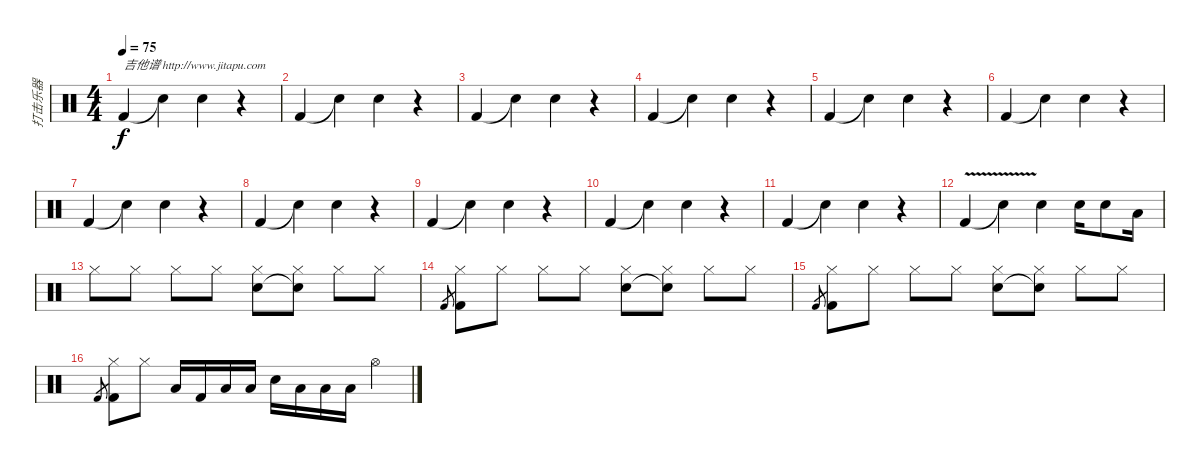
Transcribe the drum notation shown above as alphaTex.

\track ("打击乐器" "打击乐器") {instrument percussion}
\staff {score}
\articulation defaults
\ts (4 4)
\tempo 75
\clef neutral
\ks c "Kick (hit) 2".4{txt "吉他谱 http://www.jitapu.com" dy f} "Snare (hit)"{t}.4 "Electric Snare (hit)".4
r.4 |
"Kick (hit) 2".4 "Snare (hit)"{t}.4 "Electric Snare (hit)".4 r.4 |
"Kick (hit) 2".4 "Snare (hit)"{t}.4 "Electric Snare (hit)".4 r.4 |
"Kick (hit) 2".4 "Snare (hit)"{t}.4 "Electric Snare (hit)".4 r.4 |
"Kick (hit) 2".4 "Snare (hit)"{t}.4 "Electric Snare (hit)".4 r.4 |
"Kick (hit) 2".4 "Snare (hit)"{t}.4 "Electric Snare (hit)".4 r.4 |
"Kick (hit) 2".4 "Snare (hit)"{t}.4 "Electric Snare (hit)".4 r.4 |
"Kick (hit) 2".4 "Snare (hit)"{t}.4 "Electric Snare (hit)".4 r.4 |
"Kick (hit) 2".4 "Snare (hit)"{t}.4 "Electric Snare (hit)".4 r.4 |
"Kick (hit) 2".4 "Snare (hit)"{t}.4 "Electric Snare (hit)".4 r.4 |
"Kick (hit) 2".4 "Snare (hit)"{t}.4 "Electric Snare (hit)".4 r.4 |
"Kick (hit) 2"{v}.4 "Snare (hit)"{t}.4 "Electric Snare (hit)".4 "Electric Snare (hit)".16{volume 14} "Electric Snare (hit)".8 "Low Floor Tom (hit)".16 |
"Hi-Hat (closed)".8{volume 14} "Hi-Hat (closed)".8 "Hi-Hat (closed)".8 "Hi-Hat (closed)".8 ("Hi-Hat (closed)" "Electric Snare (hit)").8 ("Hi-Hat (closed)" "Snare (hit)"{t}).8 "Hi-Hat (closed)".8 "Hi-Hat (closed)".8 |
"Kick (hit) 2".8{gr} ("Hi-Hat (closed)" "Kick (hit) 2").8 "Hi-Hat (closed)".8 "Hi-Hat (closed)".8 "Hi-Hat (closed)".8 ("Hi-Hat (closed)" "Electric Snare (hit)").8 ("Hi-Hat (closed)" "Snare (hit)"{t}).8 "Hi-Hat (closed)".8 "Hi-Hat (closed)".8 |
"Kick (hit) 2".8{gr} ("Hi-Hat (closed)" "Kick (hit) 2").8 "Hi-Hat (closed)".8 "Hi-Hat (closed)".8 "Hi-Hat (closed)".8 ("Hi-Hat (closed)" "Electric Snare (hit)").8 ("Hi-Hat (closed)" "Snare (hit)"{t}).8 "Hi-Hat (closed)".8 "Hi-Hat (closed)".8 |
"Kick (hit) 2".8{gr} ("Hi-Hat (closed)" "Kick (hit) 2").8 "Hi-Hat (closed)".8 "Low Floor Tom (hit)".16 "Kick (hit) 2".16 "Low Floor Tom (hit)".16 "Low Tom (hit)".16 "Snare (hit) 2".16 "Low Floor Tom (hit)".16 "Low Tom (hit)".16 "Low Floor Tom (hit)".16 "Hi-Hat (open)".4
